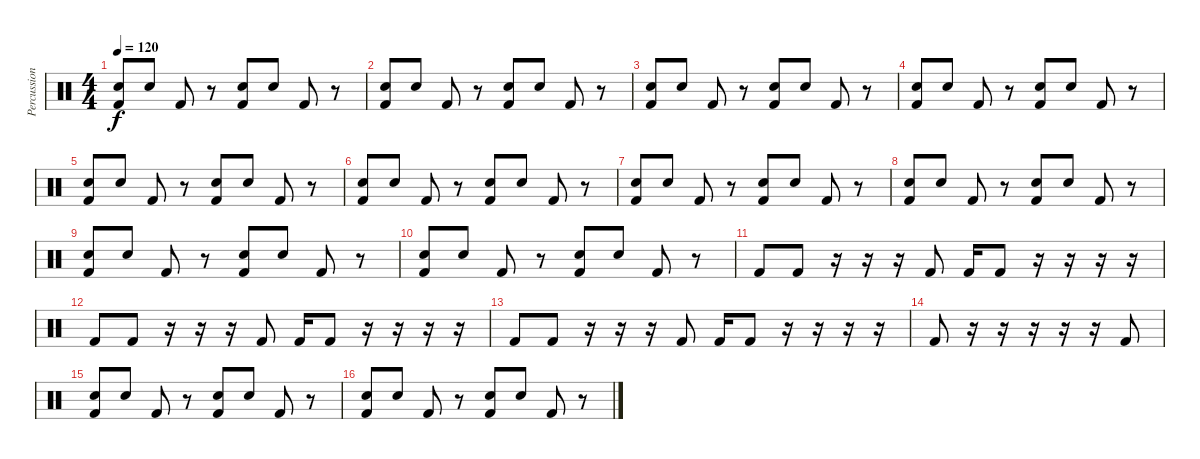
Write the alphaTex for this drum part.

\track ("Percussion" "Percussion") {instrument percussion}
\staff {score}
\articulation defaults
\ts (4 4)
\tempo 120
\clef neutral
\ks c
("Electric Snare (hit)" "Kick (hit) 2").8{dy f} "Electric Snare (hit)".8 "Kick (hit) 2".8 r.8 ("Electric Snare (hit)" "Kick (hit) 2").8 "Electric Snare (hit)".8 "Kick (hit) 2".8 r.8 |
("Electric Snare (hit)" "Kick (hit) 2").8 "Electric Snare (hit)".8 "Kick (hit) 2".8 r.8 ("Electric Snare (hit)" "Kick (hit) 2").8 "Electric Snare (hit)".8 "Kick (hit) 2".8 r.8 |
("Electric Snare (hit)" "Kick (hit) 2").8 "Electric Snare (hit)".8 "Kick (hit) 2".8 r.8 ("Electric Snare (hit)" "Kick (hit) 2").8 "Electric Snare (hit)".8 "Kick (hit) 2".8 r.8 |
("Electric Snare (hit)" "Kick (hit) 2").8 "Electric Snare (hit)".8 "Kick (hit) 2".8 r.8 ("Electric Snare (hit)" "Kick (hit) 2").8 "Electric Snare (hit)".8 "Kick (hit) 2".8 r.8 |
("Electric Snare (hit)" "Kick (hit) 2").8 "Electric Snare (hit)".8 "Kick (hit) 2".8 r.8 ("Electric Snare (hit)" "Kick (hit) 2").8 "Electric Snare (hit)".8 "Kick (hit) 2".8 r.8 |
("Electric Snare (hit)" "Kick (hit) 2").8 "Electric Snare (hit)".8 "Kick (hit) 2".8 r.8 ("Electric Snare (hit)" "Kick (hit) 2").8 "Electric Snare (hit)".8 "Kick (hit) 2".8 r.8 |
("Electric Snare (hit)" "Kick (hit) 2").8 "Electric Snare (hit)".8 "Kick (hit) 2".8 r.8 ("Electric Snare (hit)" "Kick (hit) 2").8 "Electric Snare (hit)".8 "Kick (hit) 2".8 r.8 |
("Electric Snare (hit)" "Kick (hit) 2").8 "Electric Snare (hit)".8 "Kick (hit) 2".8 r.8 ("Electric Snare (hit)" "Kick (hit) 2").8 "Electric Snare (hit)".8 "Kick (hit) 2".8 r.8 |
("Electric Snare (hit)" "Kick (hit) 2").8 "Electric Snare (hit)".8 "Kick (hit) 2".8 r.8 ("Electric Snare (hit)" "Kick (hit) 2").8 "Electric Snare (hit)".8 "Kick (hit) 2".8 r.8 |
("Electric Snare (hit)" "Kick (hit) 2").8 "Electric Snare (hit)".8 "Kick (hit) 2".8 r.8 ("Electric Snare (hit)" "Kick (hit) 2").8 "Electric Snare (hit)".8 "Kick (hit) 2".8 r.8 |
"Kick (hit) 2".8 "Kick (hit) 2".8 r.16 r.16 r.16 "Kick (hit) 2".8 "Kick (hit) 2".16 "Kick (hit) 2".8 r.16 r.16 r.16 r.16 |
"Kick (hit) 2".8 "Kick (hit) 2".8 r.16 r.16 r.16 "Kick (hit) 2".8 "Kick (hit) 2".16 "Kick (hit) 2".8 r.16 r.16 r.16 r.16 |
"Kick (hit) 2".8 "Kick (hit) 2".8 r.16 r.16 r.16 "Kick (hit) 2".8 "Kick (hit) 2".16 "Kick (hit) 2".8 r.16 r.16 r.16 r.16 |
"Kick (hit) 2".8 r.16 r.16 r.16 r.16 r.16 "Kick (hit) 2".8 |
("Electric Snare (hit)" "Kick (hit) 2").8 "Electric Snare (hit)".8 "Kick (hit) 2".8 r.8 ("Electric Snare (hit)" "Kick (hit) 2").8 "Electric Snare (hit)".8 "Kick (hit) 2".8 r.8 |
("Electric Snare (hit)" "Kick (hit) 2").8 "Electric Snare (hit)".8 "Kick (hit) 2".8 r.8 ("Electric Snare (hit)" "Kick (hit) 2").8 "Electric Snare (hit)".8 "Kick (hit) 2".8 r.8
